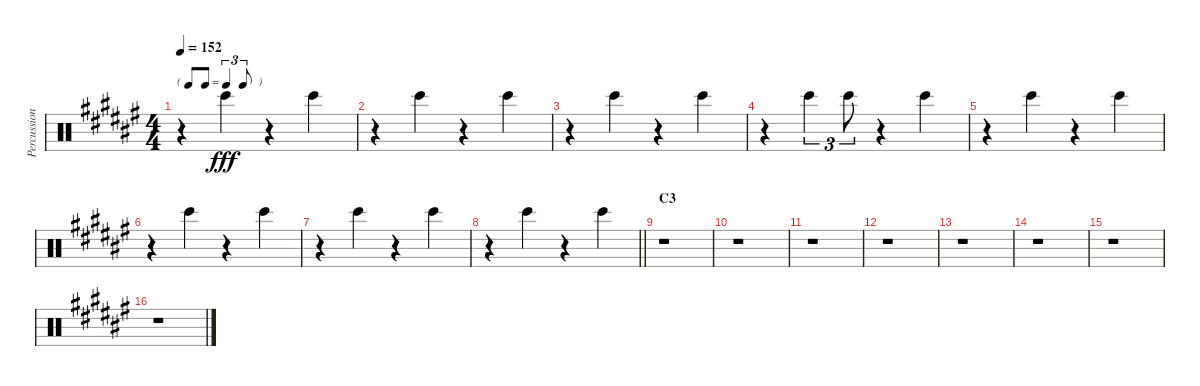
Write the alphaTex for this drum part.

\track ("Percussion" "Percussion") {instrument percussion}
\staff {score}
\articulation defaults
\ts (4 4)
\tf triplet8th
\tempo 152
\clef neutral
\ks f#
r.4{dy fff} "Bongo High (hit)".4 r.4 "Bongo High (hit)".4 |
r.4 "Bongo High (hit)".4 r.4 "Bongo High (hit)".4 |
r.4 "Bongo High (hit)".4 r.4 "Bongo High (hit)".4 |
r.4 "Bongo High (hit)".4{tu (3 2)} "Bongo High (hit)".8{tu (3 2)} r.4 "Bongo High (hit)".4 |
r.4 "Bongo High (hit)".4 r.4 "Bongo High (hit)".4 |
r.4 "Bongo High (hit)".4 r.4 "Bongo High (hit)".4 |
r.4 "Bongo High (hit)".4 r.4 "Bongo High (hit)".4 |
\barLineRight lightlight
r.4 "Bongo High (hit)".4 r.4 "Bongo High (hit)".4 |
\section ("" "C3")
r.1 |
r.1 |
r.1 |
r.1 |
r.1 |
r.1 |
r.1 |
r.1
